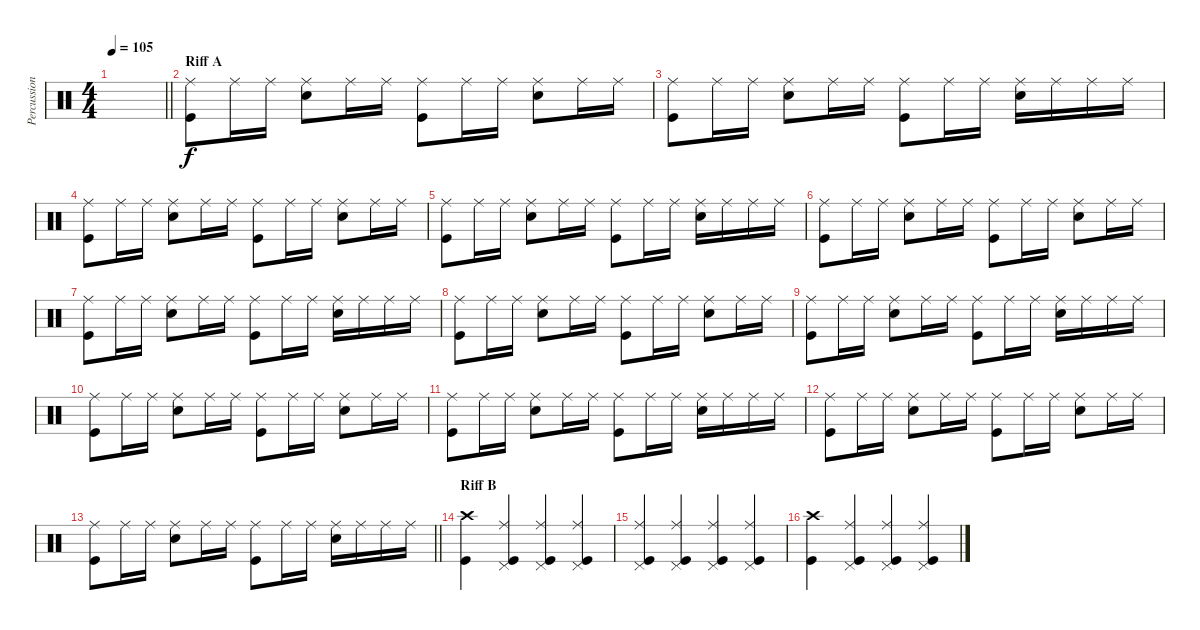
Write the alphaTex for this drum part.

\track ("Percussion" "Percussion") {instrument percussion}
\staff {score}
\articulation defaults
\ts (4 4)
\tempo 105
\clef neutral
\barLineRight lightlight
\ks c
|
\section ("" "Riff A")
("Kick (hit)" "Ride (middle)").8 "Ride (middle)".16 "Ride (middle)".16 ("Snare (hit) 2" "Ride (middle)").8 "Ride (middle)".16 "Ride (middle)".16 ("Kick (hit)" "Ride (middle)").8 "Ride (middle)".16 "Ride (middle)".16 ("Snare (hit) 2" "Ride (middle)").8 "Ride (middle)".16 "Ride (middle)".16 |
("Kick (hit)" "Ride (middle)").8 "Ride (middle)".16 "Ride (middle)".16 ("Snare (hit) 2" "Ride (middle)").8 "Ride (middle)".16 "Ride (middle)".16 ("Kick (hit)" "Ride (middle)").8 "Ride (middle)".16 "Ride (middle)".16 ("Snare (hit) 2" "Ride (middle)").16 "Ride (middle)".16 "Ride (middle)".16 "Ride (middle)".16 |
("Kick (hit)" "Ride (middle)").8 "Ride (middle)".16 "Ride (middle)".16 ("Snare (hit) 2" "Ride (middle)").8 "Ride (middle)".16 "Ride (middle)".16 ("Kick (hit)" "Ride (middle)").8 "Ride (middle)".16 "Ride (middle)".16 ("Snare (hit) 2" "Ride (middle)").8 "Ride (middle)".16 "Ride (middle)".16 |
("Kick (hit)" "Ride (middle)").8 "Ride (middle)".16 "Ride (middle)".16 ("Snare (hit) 2" "Ride (middle)").8 "Ride (middle)".16 "Ride (middle)".16 ("Kick (hit)" "Ride (middle)").8 "Ride (middle)".16 "Ride (middle)".16 ("Snare (hit) 2" "Ride (middle)").16 "Ride (middle)".16 "Ride (middle)".16 "Ride (middle)".16 |
("Kick (hit)" "Ride (middle)").8 "Ride (middle)".16 "Ride (middle)".16 ("Snare (hit) 2" "Ride (middle)").8 "Ride (middle)".16 "Ride (middle)".16 ("Kick (hit)" "Ride (middle)").8 "Ride (middle)".16 "Ride (middle)".16 ("Snare (hit) 2" "Ride (middle)").8 "Ride (middle)".16 "Ride (middle)".16 |
("Kick (hit)" "Ride (middle)").8 "Ride (middle)".16 "Ride (middle)".16 ("Snare (hit) 2" "Ride (middle)").8 "Ride (middle)".16 "Ride (middle)".16 ("Kick (hit)" "Ride (middle)").8 "Ride (middle)".16 "Ride (middle)".16 ("Snare (hit) 2" "Ride (middle)").16 "Ride (middle)".16 "Ride (middle)".16 "Ride (middle)".16 |
("Kick (hit)" "Ride (middle)").8 "Ride (middle)".16 "Ride (middle)".16 ("Snare (hit) 2" "Ride (middle)").8 "Ride (middle)".16 "Ride (middle)".16 ("Kick (hit)" "Ride (middle)").8 "Ride (middle)".16 "Ride (middle)".16 ("Snare (hit) 2" "Ride (middle)").8 "Ride (middle)".16 "Ride (middle)".16 |
("Kick (hit)" "Ride (middle)").8 "Ride (middle)".16 "Ride (middle)".16 ("Snare (hit) 2" "Ride (middle)").8 "Ride (middle)".16 "Ride (middle)".16 ("Kick (hit)" "Ride (middle)").8 "Ride (middle)".16 "Ride (middle)".16 ("Snare (hit) 2" "Ride (middle)").16 "Ride (middle)".16 "Ride (middle)".16 "Ride (middle)".16 |
("Kick (hit)" "Ride (middle)").8 "Ride (middle)".16 "Ride (middle)".16 ("Snare (hit) 2" "Ride (middle)").8 "Ride (middle)".16 "Ride (middle)".16 ("Kick (hit)" "Ride (middle)").8 "Ride (middle)".16 "Ride (middle)".16 ("Snare (hit) 2" "Ride (middle)").8 "Ride (middle)".16 "Ride (middle)".16 |
("Kick (hit)" "Ride (middle)").8 "Ride (middle)".16 "Ride (middle)".16 ("Snare (hit) 2" "Ride (middle)").8 "Ride (middle)".16 "Ride (middle)".16 ("Kick (hit)" "Ride (middle)").8 "Ride (middle)".16 "Ride (middle)".16 ("Snare (hit) 2" "Ride (middle)").16 "Ride (middle)".16 "Ride (middle)".16 "Ride (middle)".16 |
("Kick (hit)" "Ride (middle)").8 "Ride (middle)".16 "Ride (middle)".16 ("Snare (hit) 2" "Ride (middle)").8 "Ride (middle)".16 "Ride (middle)".16 ("Kick (hit)" "Ride (middle)").8 "Ride (middle)".16 "Ride (middle)".16 ("Snare (hit) 2" "Ride (middle)").8 "Ride (middle)".16 "Ride (middle)".16 |
\barLineRight lightlight
("Kick (hit)" "Ride (middle)").8 "Ride (middle)".16 "Ride (middle)".16 ("Snare (hit) 2" "Ride (middle)").8 "Ride (middle)".16 "Ride (middle)".16 ("Kick (hit)" "Ride (middle)").8 "Ride (middle)".16 "Ride (middle)".16 ("Snare (hit) 2" "Ride (middle)").16 "Ride (middle)".16 "Ride (middle)".16 "Ride (middle)".16 |
\section ("" "Riff B")
("Kick (hit)" "Crash high (hit)").4 ("Kick (hit)" "Pedal Hi-Hat (hit)" "Ride (middle)").4 ("Kick (hit)" "Pedal Hi-Hat (hit)" "Ride (middle)").4 ("Kick (hit)" "Pedal Hi-Hat (hit)" "Ride (middle)").4 |
("Kick (hit)" "Pedal Hi-Hat (hit)" "Ride (middle)").4 ("Kick (hit)" "Pedal Hi-Hat (hit)" "Ride (middle)").4 ("Kick (hit)" "Pedal Hi-Hat (hit)" "Ride (middle)").4 ("Kick (hit)" "Pedal Hi-Hat (hit)" "Ride (middle)").4 |
("Kick (hit)" "Crash high (hit)").4 ("Kick (hit)" "Pedal Hi-Hat (hit)" "Ride (middle)").4 ("Kick (hit)" "Pedal Hi-Hat (hit)" "Ride (middle)").4 ("Kick (hit)" "Pedal Hi-Hat (hit)" "Ride (middle)").4
